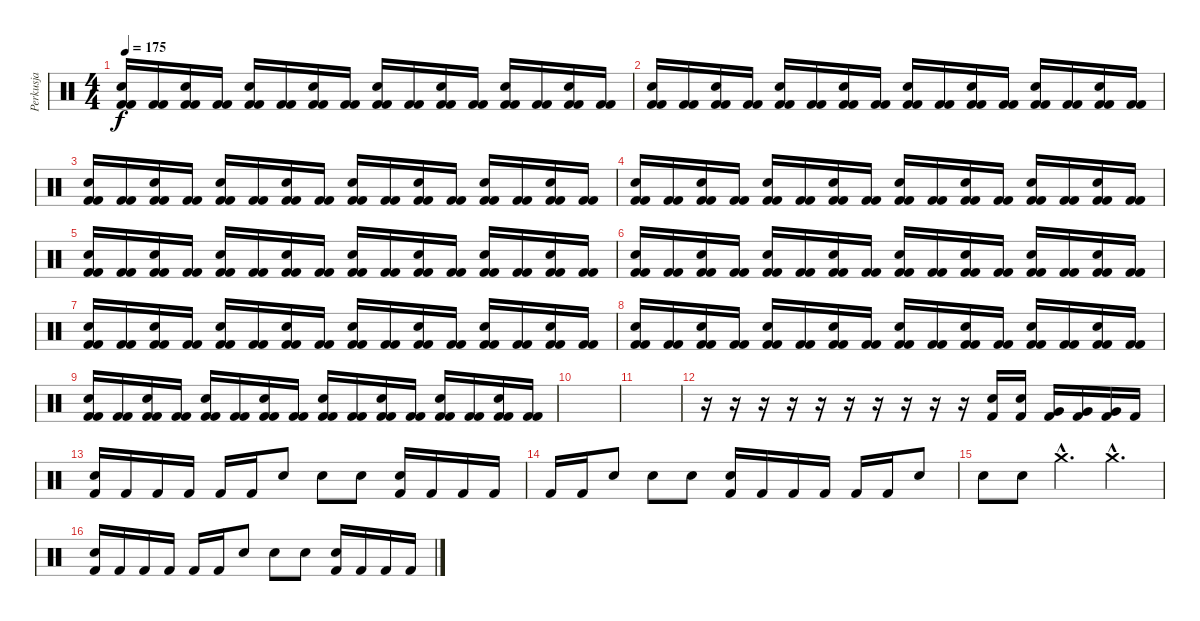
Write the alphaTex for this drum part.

\track ("Perkusja" "Perkusja") {instrument percussion}
\staff {score}
\articulation defaults
\ts (4 4)
\tempo 175
\clef neutral
\ks c
("Snare (hit) 2" "Kick (hit) 2" "Kick (hit) 2").16{dy f} ("Kick (hit) 2" "Kick (hit) 2").16 ("Snare (hit) 2" "Kick (hit) 2" "Kick (hit) 2").16 ("Kick (hit) 2" "Kick (hit) 2").16 ("Snare (hit) 2" "Kick (hit) 2" "Kick (hit) 2").16 ("Kick (hit) 2" "Kick (hit) 2").16 ("Snare (hit) 2" "Kick (hit) 2" "Kick (hit) 2").16 ("Kick (hit) 2" "Kick (hit) 2").16 ("Snare (hit) 2" "Kick (hit) 2" "Kick (hit) 2").16 ("Kick (hit) 2" "Kick (hit) 2").16 ("Snare (hit) 2" "Kick (hit) 2" "Kick (hit) 2").16 ("Kick (hit) 2" "Kick (hit) 2").16 ("Snare (hit) 2" "Kick (hit) 2" "Kick (hit) 2").16 ("Kick (hit) 2" "Kick (hit) 2").16 ("Snare (hit) 2" "Kick (hit) 2" "Kick (hit) 2").16 ("Kick (hit) 2" "Kick (hit) 2").16 |
("Snare (hit) 2" "Kick (hit) 2" "Kick (hit) 2").16 ("Kick (hit) 2" "Kick (hit) 2").16 ("Snare (hit) 2" "Kick (hit) 2" "Kick (hit) 2").16 ("Kick (hit) 2" "Kick (hit) 2").16 ("Snare (hit) 2" "Kick (hit) 2" "Kick (hit) 2").16 ("Kick (hit) 2" "Kick (hit) 2").16 ("Snare (hit) 2" "Kick (hit) 2" "Kick (hit) 2").16 ("Kick (hit) 2" "Kick (hit) 2").16 ("Snare (hit) 2" "Kick (hit) 2" "Kick (hit) 2").16 ("Kick (hit) 2" "Kick (hit) 2").16 ("Snare (hit) 2" "Kick (hit) 2" "Kick (hit) 2").16 ("Kick (hit) 2" "Kick (hit) 2").16 ("Snare (hit) 2" "Kick (hit) 2" "Kick (hit) 2").16 ("Kick (hit) 2" "Kick (hit) 2").16 ("Snare (hit) 2" "Kick (hit) 2" "Kick (hit) 2").16 ("Kick (hit) 2" "Kick (hit) 2").16 |
("Snare (hit) 2" "Kick (hit) 2" "Kick (hit) 2").16 ("Kick (hit) 2" "Kick (hit) 2").16 ("Snare (hit) 2" "Kick (hit) 2" "Kick (hit) 2").16 ("Kick (hit) 2" "Kick (hit) 2").16 ("Snare (hit) 2" "Kick (hit) 2" "Kick (hit) 2").16 ("Kick (hit) 2" "Kick (hit) 2").16 ("Snare (hit) 2" "Kick (hit) 2" "Kick (hit) 2").16 ("Kick (hit) 2" "Kick (hit) 2").16 ("Snare (hit) 2" "Kick (hit) 2" "Kick (hit) 2").16 ("Kick (hit) 2" "Kick (hit) 2").16 ("Snare (hit) 2" "Kick (hit) 2" "Kick (hit) 2").16 ("Kick (hit) 2" "Kick (hit) 2").16 ("Snare (hit) 2" "Kick (hit) 2" "Kick (hit) 2").16 ("Kick (hit) 2" "Kick (hit) 2").16 ("Snare (hit) 2" "Kick (hit) 2" "Kick (hit) 2").16 ("Kick (hit) 2" "Kick (hit) 2").16 |
("Snare (hit) 2" "Kick (hit) 2" "Kick (hit) 2").16 ("Kick (hit) 2" "Kick (hit) 2").16 ("Snare (hit) 2" "Kick (hit) 2" "Kick (hit) 2").16 ("Kick (hit) 2" "Kick (hit) 2").16 ("Snare (hit) 2" "Kick (hit) 2" "Kick (hit) 2").16 ("Kick (hit) 2" "Kick (hit) 2").16 ("Snare (hit) 2" "Kick (hit) 2" "Kick (hit) 2").16 ("Kick (hit) 2" "Kick (hit) 2").16 ("Snare (hit) 2" "Kick (hit) 2" "Kick (hit) 2").16 ("Kick (hit) 2" "Kick (hit) 2").16 ("Snare (hit) 2" "Kick (hit) 2" "Kick (hit) 2").16 ("Kick (hit) 2" "Kick (hit) 2").16 ("Snare (hit) 2" "Kick (hit) 2" "Kick (hit) 2").16 ("Kick (hit) 2" "Kick (hit) 2").16 ("Snare (hit) 2" "Kick (hit) 2" "Kick (hit) 2").16 ("Kick (hit) 2" "Kick (hit) 2").16 |
("Snare (hit) 2" "Kick (hit) 2" "Kick (hit) 2").16 ("Kick (hit) 2" "Kick (hit) 2").16 ("Snare (hit) 2" "Kick (hit) 2" "Kick (hit) 2").16 ("Kick (hit) 2" "Kick (hit) 2").16 ("Snare (hit) 2" "Kick (hit) 2" "Kick (hit) 2").16 ("Kick (hit) 2" "Kick (hit) 2").16 ("Snare (hit) 2" "Kick (hit) 2" "Kick (hit) 2").16 ("Kick (hit) 2" "Kick (hit) 2").16 ("Snare (hit) 2" "Kick (hit) 2" "Kick (hit) 2").16 ("Kick (hit) 2" "Kick (hit) 2").16 ("Snare (hit) 2" "Kick (hit) 2" "Kick (hit) 2").16 ("Kick (hit) 2" "Kick (hit) 2").16 ("Snare (hit) 2" "Kick (hit) 2" "Kick (hit) 2").16 ("Kick (hit) 2" "Kick (hit) 2").16 ("Snare (hit) 2" "Kick (hit) 2" "Kick (hit) 2").16 ("Kick (hit) 2" "Kick (hit) 2").16 |
("Snare (hit) 2" "Kick (hit) 2" "Kick (hit) 2").16 ("Kick (hit) 2" "Kick (hit) 2").16 ("Snare (hit) 2" "Kick (hit) 2" "Kick (hit) 2").16 ("Kick (hit) 2" "Kick (hit) 2").16 ("Snare (hit) 2" "Kick (hit) 2" "Kick (hit) 2").16 ("Kick (hit) 2" "Kick (hit) 2").16 ("Snare (hit) 2" "Kick (hit) 2" "Kick (hit) 2").16 ("Kick (hit) 2" "Kick (hit) 2").16 ("Snare (hit) 2" "Kick (hit) 2" "Kick (hit) 2").16 ("Kick (hit) 2" "Kick (hit) 2").16 ("Snare (hit) 2" "Kick (hit) 2" "Kick (hit) 2").16 ("Kick (hit) 2" "Kick (hit) 2").16 ("Snare (hit) 2" "Kick (hit) 2" "Kick (hit) 2").16 ("Kick (hit) 2" "Kick (hit) 2").16 ("Snare (hit) 2" "Kick (hit) 2" "Kick (hit) 2").16 ("Kick (hit) 2" "Kick (hit) 2").16 |
("Snare (hit) 2" "Kick (hit) 2" "Kick (hit) 2").16 ("Kick (hit) 2" "Kick (hit) 2").16 ("Snare (hit) 2" "Kick (hit) 2" "Kick (hit) 2").16 ("Kick (hit) 2" "Kick (hit) 2").16 ("Snare (hit) 2" "Kick (hit) 2" "Kick (hit) 2").16 ("Kick (hit) 2" "Kick (hit) 2").16 ("Snare (hit) 2" "Kick (hit) 2" "Kick (hit) 2").16 ("Kick (hit) 2" "Kick (hit) 2").16 ("Snare (hit) 2" "Kick (hit) 2" "Kick (hit) 2").16 ("Kick (hit) 2" "Kick (hit) 2").16 ("Snare (hit) 2" "Kick (hit) 2" "Kick (hit) 2").16 ("Kick (hit) 2" "Kick (hit) 2").16 ("Snare (hit) 2" "Kick (hit) 2" "Kick (hit) 2").16 ("Kick (hit) 2" "Kick (hit) 2").16 ("Snare (hit) 2" "Kick (hit) 2" "Kick (hit) 2").16 ("Kick (hit) 2" "Kick (hit) 2").16 |
("Snare (hit) 2" "Kick (hit) 2" "Kick (hit) 2").16 ("Kick (hit) 2" "Kick (hit) 2").16 ("Snare (hit) 2" "Kick (hit) 2" "Kick (hit) 2").16 ("Kick (hit) 2" "Kick (hit) 2").16 ("Snare (hit) 2" "Kick (hit) 2" "Kick (hit) 2").16 ("Kick (hit) 2" "Kick (hit) 2").16 ("Snare (hit) 2" "Kick (hit) 2" "Kick (hit) 2").16 ("Kick (hit) 2" "Kick (hit) 2").16 ("Snare (hit) 2" "Kick (hit) 2" "Kick (hit) 2").16 ("Kick (hit) 2" "Kick (hit) 2").16 ("Snare (hit) 2" "Kick (hit) 2" "Kick (hit) 2").16 ("Kick (hit) 2" "Kick (hit) 2").16 ("Snare (hit) 2" "Kick (hit) 2" "Kick (hit) 2").16 ("Kick (hit) 2" "Kick (hit) 2").16 ("Snare (hit) 2" "Kick (hit) 2" "Kick (hit) 2").16 ("Kick (hit) 2" "Kick (hit) 2").16 |
("Snare (hit) 2" "Kick (hit) 2" "Kick (hit) 2").16 ("Kick (hit) 2" "Kick (hit) 2").16 ("Snare (hit) 2" "Kick (hit) 2" "Kick (hit) 2").16 ("Kick (hit) 2" "Kick (hit) 2").16 ("Snare (hit) 2" "Kick (hit) 2" "Kick (hit) 2").16 ("Kick (hit) 2" "Kick (hit) 2").16 ("Snare (hit) 2" "Kick (hit) 2" "Kick (hit) 2").16 ("Kick (hit) 2" "Kick (hit) 2").16 ("Snare (hit) 2" "Kick (hit) 2" "Kick (hit) 2").16 ("Kick (hit) 2" "Kick (hit) 2").16 ("Snare (hit) 2" "Kick (hit) 2" "Kick (hit) 2").16 ("Kick (hit) 2" "Kick (hit) 2").16 ("Snare (hit) 2" "Kick (hit) 2" "Kick (hit) 2").16 ("Kick (hit) 2" "Kick (hit) 2").16 ("Snare (hit) 2" "Kick (hit) 2" "Kick (hit) 2").16 ("Kick (hit) 2" "Kick (hit) 2").16 |
|
|
r.16 r.16 r.16 r.16 r.16 r.16 r.16 r.16 r.16 r.16 ("Electric Snare (hit)" "Kick (hit) 2").16 ("Snare (hit) 2" "Kick (hit) 2").16 ("Very Low Tom (hit)" "Kick (hit) 2").16 ("Very Low Tom (hit)" "Kick (hit) 2").16 ("Very Low Tom (hit)" "Kick (hit) 2").16 "Kick (hit) 2".16 |
("Snare (hit) 2" "Kick (hit) 2").16 "Kick (hit) 2".16 "Kick (hit) 2".16 "Kick (hit) 2".16 "Kick (hit) 2".16 "Kick (hit) 2".16 "Snare (hit) 2".8 "Snare (hit) 2".8 "Snare (hit) 2".8 ("Snare (hit) 2" "Kick (hit) 2").16 "Kick (hit) 2".16 "Kick (hit) 2".16 "Kick (hit) 2".16 |
"Kick (hit) 2".16 "Kick (hit) 2".16 "Snare (hit) 2".8 "Snare (hit) 2".8 "Snare (hit) 2".8 ("Snare (hit) 2" "Kick (hit) 2").16 "Kick (hit) 2".16 "Kick (hit) 2".16 "Kick (hit) 2".16 "Kick (hit) 2".16 "Kick (hit) 2".16 "Snare (hit) 2".8 |
"Snare (hit) 2".8 "Snare (hit) 2".8 "Crash medium (hit)"{hac}.4{d} "Crash medium (hit)"{hac}.4{d} |
("Snare (hit) 2" "Kick (hit) 2").16 "Kick (hit) 2".16 "Kick (hit) 2".16 "Kick (hit) 2".16 "Kick (hit) 2".16 "Kick (hit) 2".16 "Snare (hit) 2".8 "Snare (hit) 2".8 "Snare (hit) 2".8 ("Snare (hit) 2" "Kick (hit) 2").16 "Kick (hit) 2".16 "Kick (hit) 2".16 "Kick (hit) 2".16
